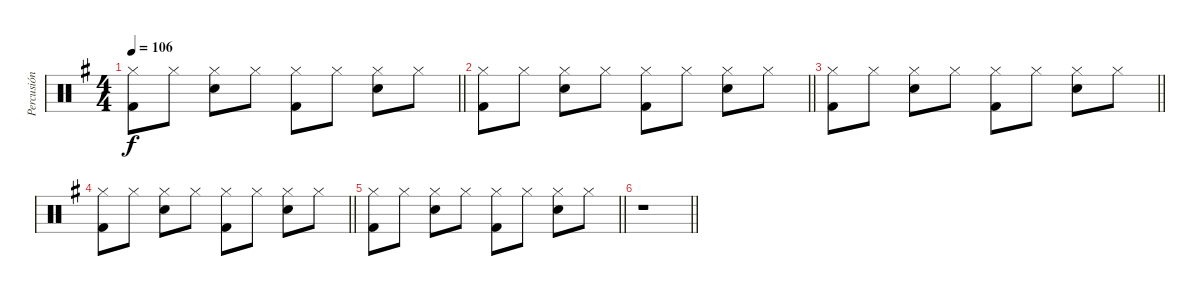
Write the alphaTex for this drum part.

\track ("Percusión" "Percusión") {instrument percussion}
\staff {score}
\articulation defaults
\ts (4 4)
\tempo 106
\clef neutral
\barLineRight lightlight
\ks g
("Kick (hit) 2" "Hi-Hat (closed)").8{dy f} "Hi-Hat (closed)".8 ("Electric Snare (hit)" "Hi-Hat (closed)").8 "Hi-Hat (closed)".8 ("Kick (hit) 2" "Hi-Hat (closed)").8 "Hi-Hat (closed)".8 ("Electric Snare (hit)" "Hi-Hat (closed)").8 "Hi-Hat (closed)".8 |
\barLineRight lightlight
("Kick (hit) 2" "Hi-Hat (closed)").8 "Hi-Hat (closed)".8 ("Electric Snare (hit)" "Hi-Hat (closed)").8 "Hi-Hat (closed)".8 ("Kick (hit) 2" "Hi-Hat (closed)").8 "Hi-Hat (closed)".8 ("Electric Snare (hit)" "Hi-Hat (closed)").8 "Hi-Hat (closed)".8 |
\barLineRight lightlight
("Kick (hit) 2" "Hi-Hat (closed)").8 "Hi-Hat (closed)".8 ("Electric Snare (hit)" "Hi-Hat (closed)").8 "Hi-Hat (closed)".8 ("Kick (hit) 2" "Hi-Hat (closed)").8 "Hi-Hat (closed)".8 ("Electric Snare (hit)" "Hi-Hat (closed)").8 "Hi-Hat (closed)".8 |
\barLineRight lightlight
("Kick (hit) 2" "Hi-Hat (closed)").8 "Hi-Hat (closed)".8 ("Electric Snare (hit)" "Hi-Hat (closed)").8 "Hi-Hat (closed)".8 ("Kick (hit) 2" "Hi-Hat (closed)").8 "Hi-Hat (closed)".8 ("Electric Snare (hit)" "Hi-Hat (closed)").8 "Hi-Hat (closed)".8 |
\barLineRight lightlight
("Kick (hit) 2" "Hi-Hat (closed)").8 "Hi-Hat (closed)".8 ("Electric Snare (hit)" "Hi-Hat (closed)").8 "Hi-Hat (closed)".8 ("Kick (hit) 2" "Hi-Hat (closed)").8 "Hi-Hat (closed)".8 ("Electric Snare (hit)" "Hi-Hat (closed)").8 "Hi-Hat (closed)".8 |
\barLineRight lightlight
r.1
